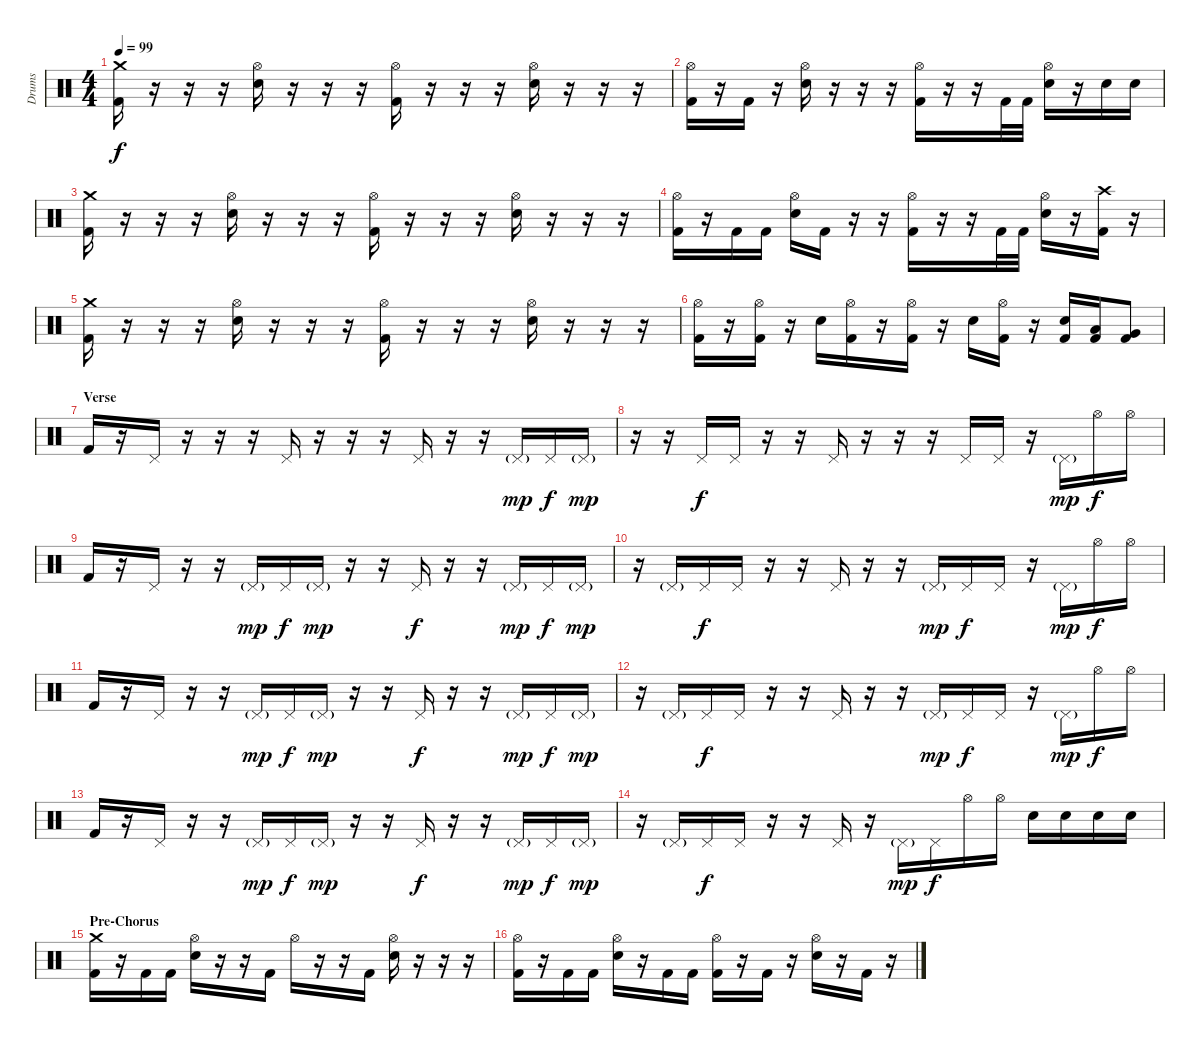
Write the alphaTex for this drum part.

\track ("Drums" "Drums") {instrument percussion}
\staff {score}
\articulation defaults
\ts (4 4)
\tempo 99
\clef neutral
\ks c
("Crash medium (hit)" "Kick (hit) 2").16{dy f} r.16 r.16 r.16 ("Hi-Hat (open)" "Electric Snare (hit)").16 r.16 r.16 r.16 ("Hi-Hat (open)" "Kick (hit) 2").16 r.16 r.16 r.16 ("Hi-Hat (open)" "Electric Snare (hit)").16 r.16 r.16 r.16 |
("Hi-Hat (open)" "Kick (hit) 2").16 r.16 "Kick (hit) 2".16 r.16 ("Hi-Hat (open)" "Electric Snare (hit)").16 r.16 r.16 r.16 ("Hi-Hat (open)" "Kick (hit) 2").16 r.16 r.16 "Kick (hit) 2".32 "Kick (hit) 2".32 ("Hi-Hat (open)" "Electric Snare (hit)").16 r.16 "Electric Snare (hit)".16 "Electric Snare (hit)".16 |
("Crash medium (hit)" "Kick (hit) 2").16 r.16 r.16 r.16 ("Hi-Hat (open)" "Electric Snare (hit)").16 r.16 r.16 r.16 ("Hi-Hat (open)" "Kick (hit) 2").16 r.16 r.16 r.16 ("Hi-Hat (open)" "Electric Snare (hit)").16 r.16 r.16 r.16 |
("Hi-Hat (open)" "Kick (hit) 2").16 r.16 "Kick (hit) 2".16 "Kick (hit) 2".16 ("Hi-Hat (open)" "Electric Snare (hit)").16 "Kick (hit) 2".16 r.16 r.16 ("Hi-Hat (open)" "Kick (hit) 2").16 r.16 r.16 "Kick (hit) 2".32 "Kick (hit) 2".32 ("Hi-Hat (open)" "Electric Snare (hit)").16 r.16 ("Crash high (hit)" "Kick (hit) 2").16 r.16 |
("Crash medium (hit)" "Kick (hit) 2").16 r.16 r.16 r.16 ("Hi-Hat (open)" "Electric Snare (hit)").16 r.16 r.16 r.16 ("Hi-Hat (open)" "Kick (hit) 2").16 r.16 r.16 r.16 ("Hi-Hat (open)" "Electric Snare (hit)").16 r.16 r.16 r.16 |
("Hi-Hat (open)" "Kick (hit) 2").16 r.16 ("Hi-Hat (open)" "Kick (hit) 2").16 r.16 "Electric Snare (hit)".16 ("Hi-Hat (open)" "Kick (hit) 2").16 r.16 ("Hi-Hat (open)" "Kick (hit) 2").16 r.16 "Electric Snare (hit)".16 ("Hi-Hat (open)" "Kick (hit) 2").16 r.16 ("Electric Snare (hit)" "Kick (hit) 2").16 ("Low Tom (hit)" "Kick (hit) 2").16 ("Very Low Tom (hit)" "Kick (hit) 2").8 |
\section ("" "Verse")
"Kick (hit) 2".16 r.16 "Pedal Hi-Hat (hit)".16 r.16 r.16 r.16 "Pedal Hi-Hat (hit)".16 r.16 r.16 r.16 "Pedal Hi-Hat (hit)".16 r.16 r.16 "Pedal Hi-Hat (hit)"{g}.16{dy mp} "Pedal Hi-Hat (hit)".16{dy f} "Pedal Hi-Hat (hit)"{g}.16{dy mp} |
r.16 r.16 "Pedal Hi-Hat (hit)".16{dy f} "Pedal Hi-Hat (hit)".16 r.16 r.16 "Pedal Hi-Hat (hit)".16 r.16 r.16 r.16 "Pedal Hi-Hat (hit)".16 "Pedal Hi-Hat (hit)".16 r.16 "Pedal Hi-Hat (hit)"{g}.16{dy mp} "Hi-Hat (open)".16{dy f} "Hi-Hat (open)".16 |
"Kick (hit) 2".16 r.16 "Pedal Hi-Hat (hit)".16 r.16 r.16 "Pedal Hi-Hat (hit)"{g}.16{dy mp} "Pedal Hi-Hat (hit)".16{dy f} "Pedal Hi-Hat (hit)"{g}.16{dy mp} r.16 r.16 "Pedal Hi-Hat (hit)".16{dy f} r.16 r.16 "Pedal Hi-Hat (hit)"{g}.16{dy mp} "Pedal Hi-Hat (hit)".16{dy f} "Pedal Hi-Hat (hit)"{g}.16{dy mp} |
r.16 "Pedal Hi-Hat (hit)"{g}.16 "Pedal Hi-Hat (hit)".16{dy f} "Pedal Hi-Hat (hit)".16 r.16 r.16 "Pedal Hi-Hat (hit)".16 r.16 r.16 "Pedal Hi-Hat (hit)"{g}.16{dy mp} "Pedal Hi-Hat (hit)".16{dy f} "Pedal Hi-Hat (hit)".16 r.16 "Pedal Hi-Hat (hit)"{g}.16{dy mp} "Hi-Hat (open)".16{dy f} "Hi-Hat (open)".16 |
"Kick (hit) 2".16 r.16 "Pedal Hi-Hat (hit)".16 r.16 r.16 "Pedal Hi-Hat (hit)"{g}.16{dy mp} "Pedal Hi-Hat (hit)".16{dy f} "Pedal Hi-Hat (hit)"{g}.16{dy mp} r.16 r.16 "Pedal Hi-Hat (hit)".16{dy f} r.16 r.16 "Pedal Hi-Hat (hit)"{g}.16{dy mp} "Pedal Hi-Hat (hit)".16{dy f} "Pedal Hi-Hat (hit)"{g}.16{dy mp} |
r.16 "Pedal Hi-Hat (hit)"{g}.16 "Pedal Hi-Hat (hit)".16{dy f} "Pedal Hi-Hat (hit)".16 r.16 r.16 "Pedal Hi-Hat (hit)".16 r.16 r.16 "Pedal Hi-Hat (hit)"{g}.16{dy mp} "Pedal Hi-Hat (hit)".16{dy f} "Pedal Hi-Hat (hit)".16 r.16 "Pedal Hi-Hat (hit)"{g}.16{dy mp} "Hi-Hat (open)".16{dy f} "Hi-Hat (open)".16 |
"Kick (hit) 2".16 r.16 "Pedal Hi-Hat (hit)".16 r.16 r.16 "Pedal Hi-Hat (hit)"{g}.16{dy mp} "Pedal Hi-Hat (hit)".16{dy f} "Pedal Hi-Hat (hit)"{g}.16{dy mp} r.16 r.16 "Pedal Hi-Hat (hit)".16{dy f} r.16 r.16 "Pedal Hi-Hat (hit)"{g}.16{dy mp} "Pedal Hi-Hat (hit)".16{dy f} "Pedal Hi-Hat (hit)"{g}.16{dy mp} |
r.16 "Pedal Hi-Hat (hit)"{g}.16 "Pedal Hi-Hat (hit)".16{dy f} "Pedal Hi-Hat (hit)".16 r.16 r.16 "Pedal Hi-Hat (hit)".16 r.16 "Pedal Hi-Hat (hit)"{g}.16{dy mp} "Pedal Hi-Hat (hit)".16{dy f} "Hi-Hat (open)".16 "Hi-Hat (open)".16 "Electric Snare (hit)".16 "Electric Snare (hit)".16 "Electric Snare (hit)".16 "Electric Snare (hit)".16 |
\section ("" "Pre-Chorus")
("Crash medium (hit)" "Kick (hit) 2").16 r.16 "Kick (hit) 2".16 "Kick (hit) 2".16 ("Hi-Hat (open)" "Electric Snare (hit)").16 r.16 r.16 "Kick (hit) 2".16 "Hi-Hat (open)".16 r.16 r.16 "Kick (hit) 2".16 ("Hi-Hat (open)" "Electric Snare (hit)").16 r.16 r.16 r.16 |
("Hi-Hat (open)" "Kick (hit) 2").16 r.16 "Kick (hit) 2".16 "Kick (hit) 2".16 ("Hi-Hat (open)" "Electric Snare (hit)").16 r.16 "Kick (hit) 2".16 "Kick (hit) 2".16 ("Hi-Hat (open)" "Kick (hit) 2").16 r.16 "Kick (hit) 2".16 r.16 ("Hi-Hat (open)" "Electric Snare (hit)").16 r.16 "Kick (hit) 2".16 r.16
